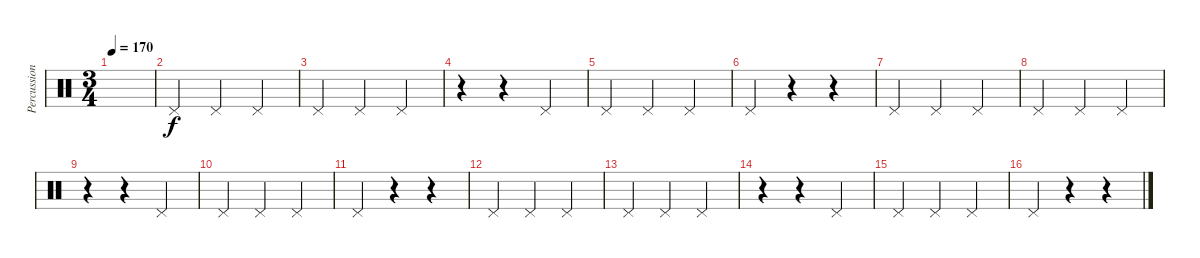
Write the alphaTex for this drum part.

\track ("Percussion" "Percussion") {instrument percussion}
\staff {score}
\articulation defaults
\ts (3 4)
\tempo 170
\clef neutral
\ks c
|
"Pedal Hi-Hat (hit)".4 "Pedal Hi-Hat (hit)".4 "Pedal Hi-Hat (hit)".4 |
"Pedal Hi-Hat (hit)".4 "Pedal Hi-Hat (hit)".4 "Pedal Hi-Hat (hit)".4 |
r.4 r.4 "Pedal Hi-Hat (hit)".4 |
"Pedal Hi-Hat (hit)".4 "Pedal Hi-Hat (hit)".4 "Pedal Hi-Hat (hit)".4 |
"Pedal Hi-Hat (hit)".4 r.4 r.4 |
"Pedal Hi-Hat (hit)".4 "Pedal Hi-Hat (hit)".4 "Pedal Hi-Hat (hit)".4 |
"Pedal Hi-Hat (hit)".4 "Pedal Hi-Hat (hit)".4 "Pedal Hi-Hat (hit)".4 |
r.4 r.4 "Pedal Hi-Hat (hit)".4 |
"Pedal Hi-Hat (hit)".4 "Pedal Hi-Hat (hit)".4 "Pedal Hi-Hat (hit)".4 |
"Pedal Hi-Hat (hit)".4 r.4 r.4 |
"Pedal Hi-Hat (hit)".4 "Pedal Hi-Hat (hit)".4 "Pedal Hi-Hat (hit)".4 |
"Pedal Hi-Hat (hit)".4 "Pedal Hi-Hat (hit)".4 "Pedal Hi-Hat (hit)".4 |
r.4 r.4 "Pedal Hi-Hat (hit)".4 |
"Pedal Hi-Hat (hit)".4 "Pedal Hi-Hat (hit)".4 "Pedal Hi-Hat (hit)".4 |
"Pedal Hi-Hat (hit)".4 r.4 r.4
